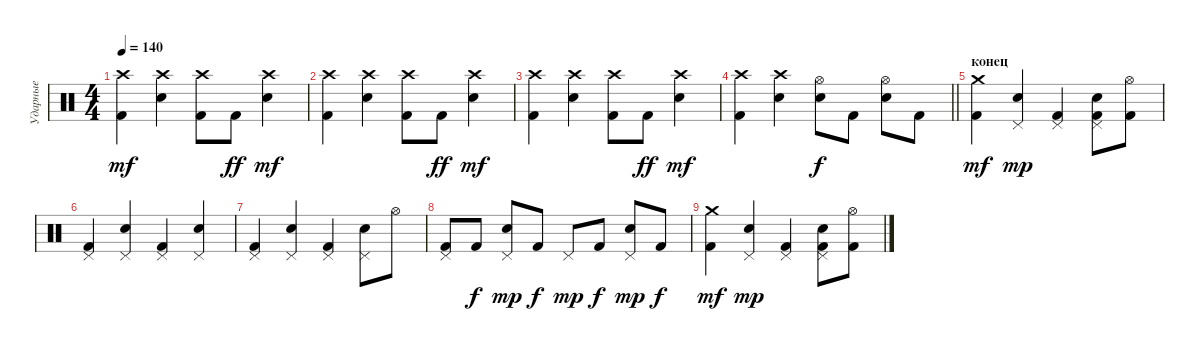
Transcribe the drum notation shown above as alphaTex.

\track ("Ударные" "Ударные") {instrument percussion}
\staff {score}
\articulation defaults
\ts (4 4)
\tempo 140
\clef neutral
\ks c
("Kick (hit) 2" "Crash high (hit)").4{dy mf} ("Snare (hit) 2" "Crash high (hit)").4 ("Kick (hit) 2" "Crash high (hit)").8 "Kick (hit) 2".8{dy ff} ("Snare (hit) 2" "Crash high (hit)").4{dy mf} |
("Kick (hit) 2" "Crash high (hit)").4 ("Snare (hit) 2" "Crash high (hit)").4 ("Kick (hit) 2" "Crash high (hit)").8 "Kick (hit) 2".8{dy ff} ("Snare (hit) 2" "Crash high (hit)").4{dy mf} |
("Kick (hit) 2" "Crash high (hit)").4 ("Snare (hit) 2" "Crash high (hit)").4 ("Kick (hit) 2" "Crash high (hit)").8 "Kick (hit) 2".8{dy ff} ("Snare (hit) 2" "Crash high (hit)").4{dy mf} |
\barLineRight lightlight
("Kick (hit) 2" "Crash high (hit)").4 ("Snare (hit) 2" "Crash high (hit)").4 ("Snare (hit) 2" "Hi-Hat (open)").8{dy f} "Kick (hit) 2".8 ("Snare (hit) 2" "Hi-Hat (open)").8 "Kick (hit) 2".8 |
\section ("" "конец")
("Kick (hit) 2" "Crash medium (hit)").4{dy mf} ("Snare (hit) 2" "Pedal Hi-Hat (hit)").4{dy mp} ("Kick (hit) 2" "Pedal Hi-Hat (hit)").4 ("Kick (hit) 2" "Snare (hit) 2" "Pedal Hi-Hat (hit)").8 ("Kick (hit) 2" "Hi-Hat (open)").8 |
("Kick (hit) 2" "Pedal Hi-Hat (hit)").4 ("Snare (hit) 2" "Pedal Hi-Hat (hit)").4 ("Kick (hit) 2" "Pedal Hi-Hat (hit)").4 ("Snare (hit) 2" "Pedal Hi-Hat (hit)").4 |
("Kick (hit) 2" "Pedal Hi-Hat (hit)").4 ("Snare (hit) 2" "Pedal Hi-Hat (hit)").4 ("Kick (hit) 2" "Pedal Hi-Hat (hit)").4 ("Snare (hit) 2" "Pedal Hi-Hat (hit)").8 "Hi-Hat (open)".8 |
("Kick (hit) 2" "Pedal Hi-Hat (hit)").8 "Kick (hit) 2".8{dy f} ("Snare (hit) 2" "Pedal Hi-Hat (hit)").8{dy mp} "Kick (hit) 2".8{dy f} "Pedal Hi-Hat (hit)".8{dy mp} "Kick (hit) 2".8{dy f} ("Snare (hit) 2" "Pedal Hi-Hat (hit)").8{dy mp} "Kick (hit) 2".8{dy f} |
("Kick (hit) 2" "Crash medium (hit)").4{dy mf} ("Snare (hit) 2" "Pedal Hi-Hat (hit)").4{dy mp} ("Kick (hit) 2" "Pedal Hi-Hat (hit)").4 ("Kick (hit) 2" "Snare (hit) 2" "Pedal Hi-Hat (hit)").8 ("Kick (hit) 2" "Hi-Hat (open)").8
